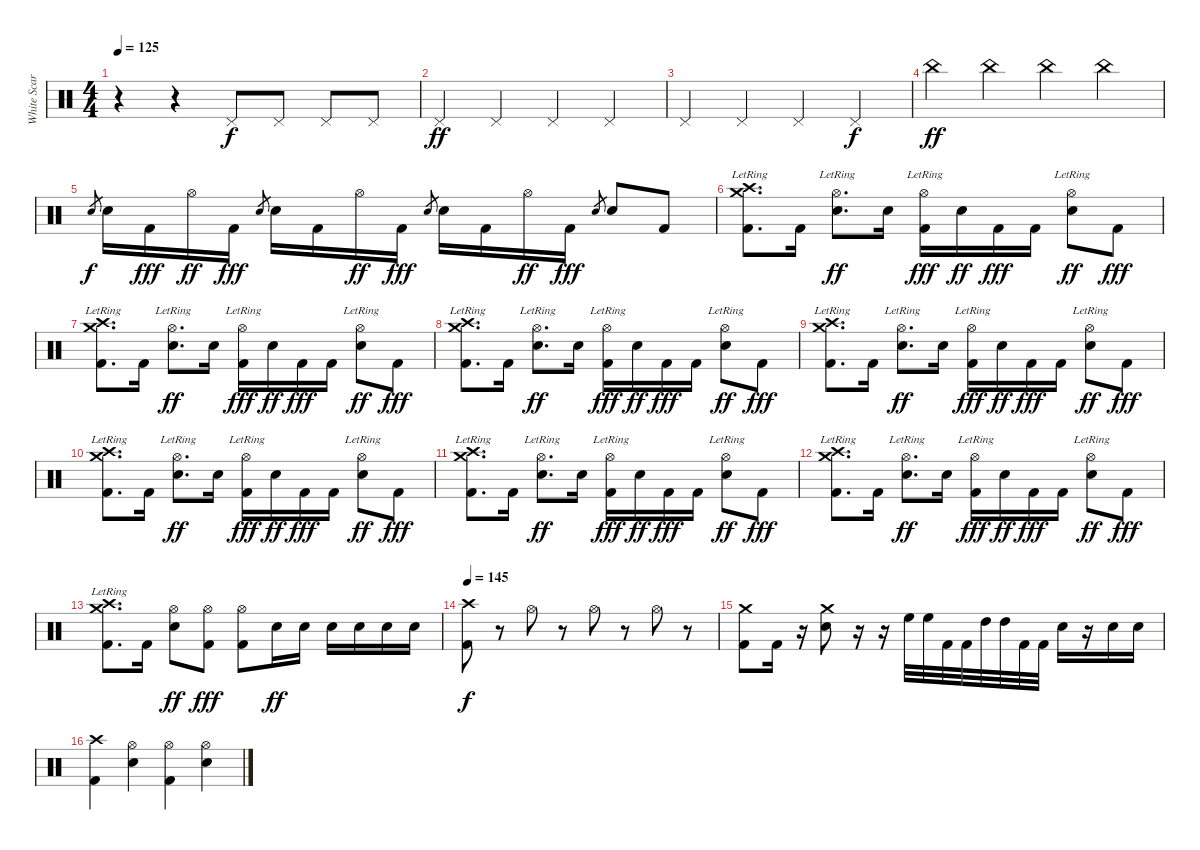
\track ("White Scar" "White Scar") {instrument percussion}
\staff {score}
\articulation defaults
\ts (4 4)
\tempo 125
\clef neutral
\ks c
r.4{dy f} r.4 "Pedal Hi-Hat (hit)".8 "Pedal Hi-Hat (hit)".8 "Pedal Hi-Hat (hit)".8 "Pedal Hi-Hat (hit)".8 |
"Pedal Hi-Hat (hit)".4{dy ff} "Pedal Hi-Hat (hit)".4 "Pedal Hi-Hat (hit)".4 "Pedal Hi-Hat (hit)".4 |
"Pedal Hi-Hat (hit)".4 "Pedal Hi-Hat (hit)".4 "Pedal Hi-Hat (hit)".4 "Pedal Hi-Hat (hit)".4{dy f} |
"China (hit)".4{dy ff} "China (hit)".4 "China (hit)".4 "China (hit)".4 |
"Snare (hit) 2".8{gr dy f} "Snare (hit) 2".16 "Kick (hit) 2".16{dy fff} "Hi-Hat (open)".16{dy ff} "Kick (hit) 2".16{dy fff} "Snare (hit) 2".8{gr} "Snare (hit) 2".16 "Kick (hit) 2".16 "Hi-Hat (open)".16{dy ff} "Kick (hit) 2".16{dy fff} "Snare (hit) 2".8{gr} "Snare (hit) 2".16 "Kick (hit) 2".16 "Hi-Hat (open)".16{dy ff} "Kick (hit) 2".16{dy fff} "Snare (hit) 2".8{gr} "Snare (hit) 2".8 "Kick (hit) 2".8 |
("Crash medium (hit)"{lr} "Crash high (hit)"{lr} "Kick (hit) 2").8{d} "Kick (hit) 2".16 ("Hi-Hat (open)"{lr} "Snare (hit) 2").8{d dy ff} "Snare (hit) 2".16 ("Hi-Hat (open)"{lr} "Kick (hit) 2").16{dy fff} "Snare (hit) 2".16{dy ff} "Kick (hit) 2".16{dy fff} "Kick (hit) 2".16 ("Hi-Hat (open)"{lr} "Snare (hit) 2").8{dy ff} "Kick (hit) 2".8{dy fff} |
("Crash medium (hit)"{lr} "Crash high (hit)"{lr} "Kick (hit) 2").8{d} "Kick (hit) 2".16 ("Hi-Hat (open)"{lr} "Snare (hit) 2").8{d dy ff} "Snare (hit) 2".16 ("Hi-Hat (open)"{lr} "Kick (hit) 2").16{dy fff} "Snare (hit) 2".16{dy ff} "Kick (hit) 2".16{dy fff} "Kick (hit) 2".16 ("Hi-Hat (open)"{lr} "Snare (hit) 2").8{dy ff} "Kick (hit) 2".8{dy fff} |
("Crash medium (hit)"{lr} "Crash high (hit)"{lr} "Kick (hit) 2").8{d} "Kick (hit) 2".16 ("Hi-Hat (open)"{lr} "Snare (hit) 2").8{d dy ff} "Snare (hit) 2".16 ("Hi-Hat (open)"{lr} "Kick (hit) 2").16{dy fff} "Snare (hit) 2".16{dy ff} "Kick (hit) 2".16{dy fff} "Kick (hit) 2".16 ("Hi-Hat (open)"{lr} "Snare (hit) 2").8{dy ff} "Kick (hit) 2".8{dy fff} |
("Crash medium (hit)"{lr} "Crash high (hit)"{lr} "Kick (hit) 2").8{d} "Kick (hit) 2".16 ("Hi-Hat (open)"{lr} "Snare (hit) 2").8{d dy ff} "Snare (hit) 2".16 ("Hi-Hat (open)"{lr} "Kick (hit) 2").16{dy fff} "Snare (hit) 2".16{dy ff} "Kick (hit) 2".16{dy fff} "Kick (hit) 2".16 ("Hi-Hat (open)"{lr} "Snare (hit) 2").8{dy ff} "Kick (hit) 2".8{dy fff} |
("Crash medium (hit)"{lr} "Crash high (hit)"{lr} "Kick (hit) 2").8{d} "Kick (hit) 2".16 ("Hi-Hat (open)"{lr} "Snare (hit) 2").8{d dy ff} "Snare (hit) 2".16 ("Hi-Hat (open)"{lr} "Kick (hit) 2").16{dy fff} "Snare (hit) 2".16{dy ff} "Kick (hit) 2".16{dy fff} "Kick (hit) 2".16 ("Hi-Hat (open)"{lr} "Snare (hit) 2").8{dy ff} "Kick (hit) 2".8{dy fff} |
("Crash medium (hit)"{lr} "Crash high (hit)"{lr} "Kick (hit) 2").8{d} "Kick (hit) 2".16 ("Hi-Hat (open)"{lr} "Snare (hit) 2").8{d dy ff} "Snare (hit) 2".16 ("Hi-Hat (open)"{lr} "Kick (hit) 2").16{dy fff} "Snare (hit) 2".16{dy ff} "Kick (hit) 2".16{dy fff} "Kick (hit) 2".16 ("Hi-Hat (open)"{lr} "Snare (hit) 2").8{dy ff} "Kick (hit) 2".8{dy fff} |
("Crash medium (hit)"{lr} "Crash high (hit)"{lr} "Kick (hit) 2").8{d} "Kick (hit) 2".16 ("Hi-Hat (open)"{lr} "Snare (hit) 2").8{d dy ff} "Snare (hit) 2".16 ("Hi-Hat (open)"{lr} "Kick (hit) 2").16{dy fff} "Snare (hit) 2".16{dy ff} "Kick (hit) 2".16{dy fff} "Kick (hit) 2".16 ("Hi-Hat (open)"{lr} "Snare (hit) 2").8{dy ff} "Kick (hit) 2".8{dy fff} |
("Crash medium (hit)"{lr} "Crash high (hit)"{lr} "Kick (hit) 2").8{d} "Kick (hit) 2".16 ("Hi-Hat (open)" "Snare (hit) 2").8{dy ff} ("Hi-Hat (open)" "Kick (hit) 2").8{dy fff} ("Hi-Hat (open)" "Kick (hit) 2").8 "Snare (hit) 2".16{dy ff} "Snare (hit) 2".16 "Snare (hit) 2".16 "Snare (hit) 2".16 "Snare (hit) 2".16 "Snare (hit) 2".16 |
\tempo 145
("Crash high (hit)" "Kick (hit) 2").8{dy f} r.8 "Hi-Hat (open)".8 r.8 "Hi-Hat (open)".8 r.8 "Hi-Hat (open)".8 r.8 |
("Crash medium (hit)" "Kick (hit) 2").8 "Kick (hit) 2".16 r.16 ("Crash medium (hit)" "Snare (hit) 2").8 r.16 r.16 "High Floor Tom (hit)".32 "High Floor Tom (hit)".32 "Kick (hit) 2".32 "Kick (hit) 2".32 "High Tom (hit)".32 "High Tom (hit)".32 "Kick (hit) 2".32 "Kick (hit) 2".32 "Snare (hit) 2".16 r.16 "Snare (hit) 2".16 "Snare (hit) 2".16 |
("Crash high (hit)" "Kick (hit) 2").4 ("Hi-Hat (open)" "Snare (hit) 2").4 ("Hi-Hat (open)" "Kick (hit) 2").4 ("Hi-Hat (open)" "Snare (hit) 2").4
